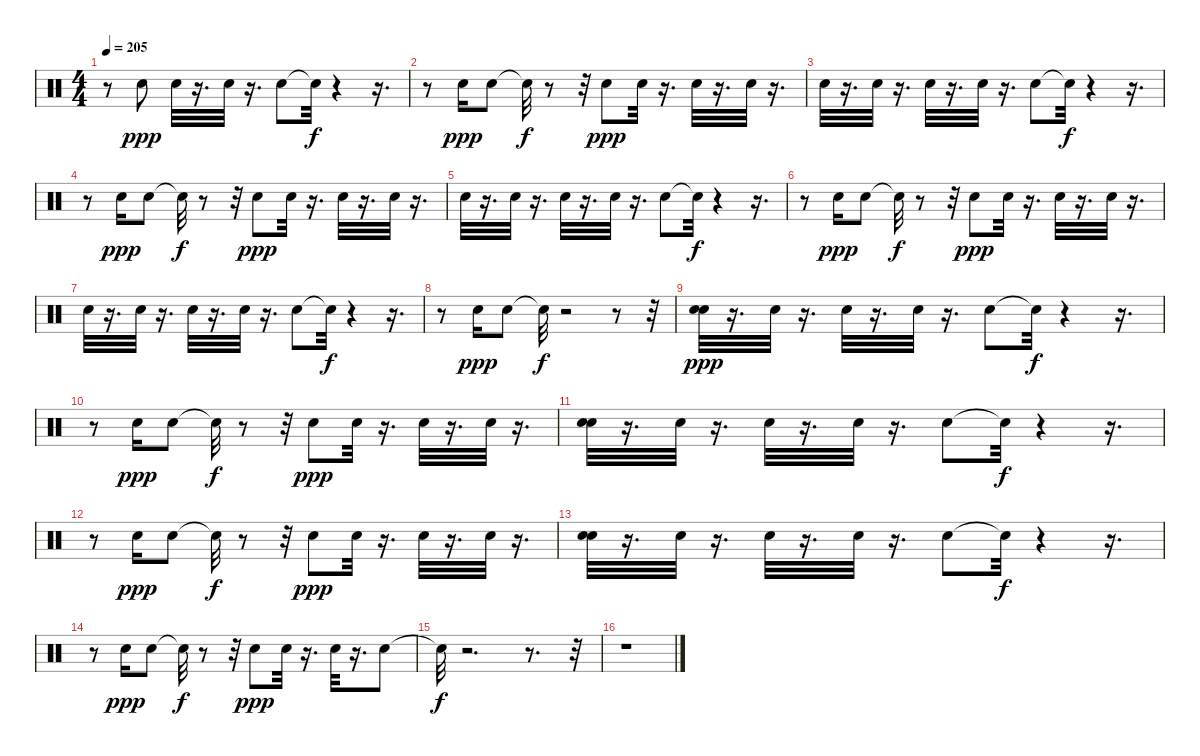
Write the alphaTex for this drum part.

\track "" {instrument percussion}
\staff {score}
\articulation defaults
\ts (4 4)
\tempo 205
\clef neutral
\ks c
r.8{dy ppp} "Electric Snare (hit)".8 "Electric Snare (hit)".32 r.16{d} "Electric Snare (hit)".32 r.16{d} "Electric Snare (hit)".8 "Snare (hit)"{t}.32{dy f} r.4 r.16{d} |
r.8 "Electric Snare (hit)".16{dy ppp} "Electric Snare (hit)".8 "Snare (hit)"{t}.32{dy f} r.8 r.32 "Electric Snare (hit)".8{dy ppp} "Electric Snare (hit)".32 r.16{d} "Electric Snare (hit)".32 r.16{d} "Electric Snare (hit)".32 r.16{d} |
"Electric Snare (hit)".32 r.16{d} "Electric Snare (hit)".32 r.16{d} "Electric Snare (hit)".32 r.16{d} "Electric Snare (hit)".32 r.16{d} "Electric Snare (hit)".8 "Snare (hit)"{t}.32{dy f} r.4 r.16{d} |
r.8 "Electric Snare (hit)".16{dy ppp} "Electric Snare (hit)".8 "Snare (hit)"{t}.32{dy f} r.8 r.32 "Electric Snare (hit)".8{dy ppp} "Electric Snare (hit)".32 r.16{d} "Electric Snare (hit)".32 r.16{d} "Electric Snare (hit)".32 r.16{d} |
"Electric Snare (hit)".32 r.16{d} "Electric Snare (hit)".32 r.16{d} "Electric Snare (hit)".32 r.16{d} "Electric Snare (hit)".32 r.16{d} "Electric Snare (hit)".8 "Snare (hit)"{t}.32{dy f} r.4 r.16{d} |
r.8 "Electric Snare (hit)".16{dy ppp} "Electric Snare (hit)".8 "Snare (hit)"{t}.32{dy f} r.8 r.32 "Electric Snare (hit)".8{dy ppp} "Electric Snare (hit)".32 r.16{d} "Electric Snare (hit)".32 r.16{d} "Electric Snare (hit)".32 r.16{d} |
"Electric Snare (hit)".32 r.16{d} "Electric Snare (hit)".32 r.16{d} "Electric Snare (hit)".32 r.16{d} "Electric Snare (hit)".32 r.16{d} "Electric Snare (hit)".8 "Snare (hit)"{t}.32{dy f} r.4 r.16{d} |
r.8 "Electric Snare (hit)".16{dy ppp} "Electric Snare (hit)".8 "Snare (hit)"{t}.32{dy f} r.2 r.8 r.32 |
("Electric Snare (hit)" "Electric Snare (hit)").32{dy ppp} r.16{d} "Electric Snare (hit)".32 r.16{d} "Electric Snare (hit)".32 r.16{d} "Electric Snare (hit)".32 r.16{d} "Electric Snare (hit)".8 "Snare (hit)"{t}.32{dy f} r.4 r.16{d} |
r.8 "Electric Snare (hit)".16{dy ppp} "Electric Snare (hit)".8 "Snare (hit)"{t}.32{dy f} r.8 r.32 "Electric Snare (hit)".8{dy ppp} "Electric Snare (hit)".32 r.16{d} "Electric Snare (hit)".32 r.16{d} "Electric Snare (hit)".32 r.16{d} |
("Electric Snare (hit)" "Electric Snare (hit)").32 r.16{d} "Electric Snare (hit)".32 r.16{d} "Electric Snare (hit)".32 r.16{d} "Electric Snare (hit)".32 r.16{d} "Electric Snare (hit)".8 "Snare (hit)"{t}.32{dy f} r.4 r.16{d} |
r.8 "Electric Snare (hit)".16{dy ppp} "Electric Snare (hit)".8 "Snare (hit)"{t}.32{dy f} r.8 r.32 "Electric Snare (hit)".8{dy ppp} "Electric Snare (hit)".32 r.16{d} "Electric Snare (hit)".32 r.16{d} "Electric Snare (hit)".32 r.16{d} |
("Electric Snare (hit)" "Electric Snare (hit)").32 r.16{d} "Electric Snare (hit)".32 r.16{d} "Electric Snare (hit)".32 r.16{d} "Electric Snare (hit)".32 r.16{d} "Electric Snare (hit)".8 "Snare (hit)"{t}.32{dy f} r.4 r.16{d} |
r.8 "Electric Snare (hit)".16{dy ppp} "Electric Snare (hit)".8 "Snare (hit)"{t}.32{dy f} r.8 r.32 "Electric Snare (hit)".8{dy ppp} "Electric Snare (hit)".32 r.16{d} "Electric Snare (hit)".32 r.16{d} "Electric Snare (hit)".8 |
"Snare (hit)"{t}.32{dy f} r.2{d} r.8{d} r.32 |
r.1
